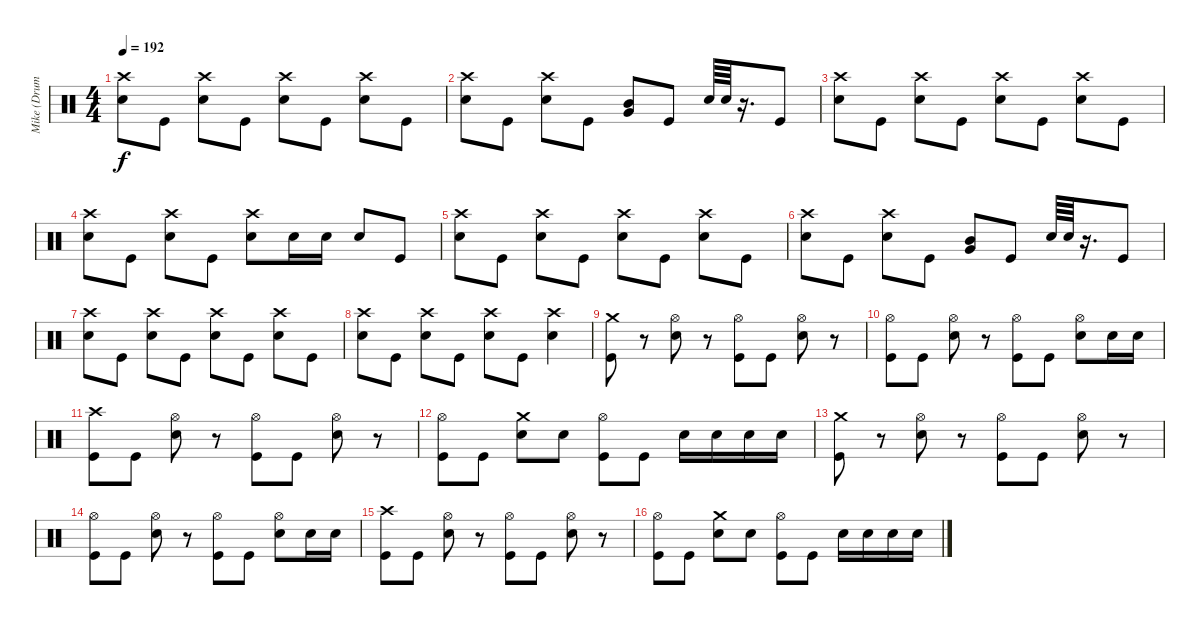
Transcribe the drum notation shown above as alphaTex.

\track ("Mike (Drums)" "Mike (Drum") {instrument percussion}
\staff {score}
\articulation defaults
\ts (4 4)
\tempo 192
\clef neutral
\ks c
("Crash high (hit)" "Snare (hit) 2").8{dy f} "Kick (hit)".8 ("Crash high (hit)" "Snare (hit) 2").8 "Kick (hit)".8 ("Crash high (hit)" "Snare (hit) 2").8 "Kick (hit)".8 ("Crash high (hit)" "Snare (hit) 2").8 "Kick (hit)".8 |
("Crash high (hit)" "Snare (hit) 2").8 "Kick (hit)".8 ("Crash high (hit)" "Snare (hit) 2").8 "Kick (hit)".8 ("Mid Tom (hit)" "Very Low Tom (hit)").8 "Kick (hit)".8 "Snare (hit) 2".64 "Snare (hit) 2".64 r.16{d} "Kick (hit)".8 |
("Crash high (hit)" "Snare (hit) 2").8 "Kick (hit)".8 ("Crash high (hit)" "Snare (hit) 2").8 "Kick (hit)".8 ("Crash high (hit)" "Snare (hit) 2").8 "Kick (hit)".8 ("Crash high (hit)" "Snare (hit) 2").8 "Kick (hit)".8 |
("Crash high (hit)" "Snare (hit) 2").8 "Kick (hit)".8 ("Crash high (hit)" "Snare (hit) 2").8 "Kick (hit)".8 ("Crash high (hit)" "Snare (hit) 2").8 "Snare (hit) 2".16 "Snare (hit) 2".16 "Snare (hit) 2".8 "Kick (hit)".8 |
("Crash high (hit)" "Snare (hit) 2").8 "Kick (hit)".8 ("Crash high (hit)" "Snare (hit) 2").8 "Kick (hit)".8 ("Crash high (hit)" "Snare (hit) 2").8 "Kick (hit)".8 ("Crash high (hit)" "Snare (hit) 2").8 "Kick (hit)".8 |
("Crash high (hit)" "Snare (hit) 2").8 "Kick (hit)".8 ("Crash high (hit)" "Snare (hit) 2").8 "Kick (hit)".8 ("Mid Tom (hit)" "Very Low Tom (hit)").8 "Kick (hit)".8 "Snare (hit) 2".64 "Snare (hit) 2".64 r.16{d} "Kick (hit)".8 |
("Crash high (hit)" "Snare (hit) 2").8 "Kick (hit)".8 ("Crash high (hit)" "Snare (hit) 2").8 "Kick (hit)".8 ("Crash high (hit)" "Snare (hit) 2").8 "Kick (hit)".8 ("Crash high (hit)" "Snare (hit) 2").8 "Kick (hit)".8 |
("Crash high (hit)" "Snare (hit) 2").8 "Kick (hit)".8 ("Crash high (hit)" "Snare (hit) 2").8 "Kick (hit)".8 ("Crash high (hit)" "Snare (hit) 2").8 "Kick (hit)".8 ("Crash high (hit)" "Snare (hit) 2").4 |
("Crash medium (hit)" "Kick (hit)").8 r.8 ("Hi-Hat (open)" "Snare (hit) 2").8 r.8 ("Hi-Hat (open)" "Kick (hit)").8 "Kick (hit)".8 ("Hi-Hat (open)" "Snare (hit) 2").8 r.8 |
("Hi-Hat (open)" "Kick (hit)").8 "Kick (hit)".8 ("Hi-Hat (open)" "Snare (hit) 2").8 r.8 ("Hi-Hat (open)" "Kick (hit)").8 "Kick (hit)".8 ("Hi-Hat (open)" "Snare (hit) 2").8 "Snare (hit) 2".16 "Snare (hit) 2".16 |
("Crash high (hit)" "Kick (hit)").8 "Kick (hit)".8 ("Hi-Hat (open)" "Snare (hit) 2").8 r.8 ("Hi-Hat (open)" "Kick (hit)").8 "Kick (hit)".8 ("Hi-Hat (open)" "Snare (hit) 2").8 r.8 |
("Hi-Hat (open)" "Kick (hit)").8 "Kick (hit)".8 ("Crash medium (hit)" "Snare (hit) 2").8 "Snare (hit) 2".8 ("Hi-Hat (open)" "Kick (hit)").8 "Kick (hit)".8 "Snare (hit) 2".16 "Snare (hit) 2".16 "Snare (hit) 2".16 "Snare (hit) 2".16 |
("Crash medium (hit)" "Kick (hit)").8 r.8 ("Hi-Hat (open)" "Snare (hit) 2").8 r.8 ("Hi-Hat (open)" "Kick (hit)").8 "Kick (hit)".8 ("Hi-Hat (open)" "Snare (hit) 2").8 r.8 |
("Hi-Hat (open)" "Kick (hit)").8 "Kick (hit)".8 ("Hi-Hat (open)" "Snare (hit) 2").8 r.8 ("Hi-Hat (open)" "Kick (hit)").8 "Kick (hit)".8 ("Hi-Hat (open)" "Snare (hit) 2").8 "Snare (hit) 2".16 "Snare (hit) 2".16 |
("Crash high (hit)" "Kick (hit)").8 "Kick (hit)".8 ("Hi-Hat (open)" "Snare (hit) 2").8 r.8 ("Hi-Hat (open)" "Kick (hit)").8 "Kick (hit)".8 ("Hi-Hat (open)" "Snare (hit) 2").8 r.8 |
("Hi-Hat (open)" "Kick (hit)").8 "Kick (hit)".8 ("Crash medium (hit)" "Snare (hit) 2").8 "Snare (hit) 2".8 ("Hi-Hat (open)" "Kick (hit)").8 "Kick (hit)".8 "Snare (hit) 2".16 "Snare (hit) 2".16 "Snare (hit) 2".16 "Snare (hit) 2".16
